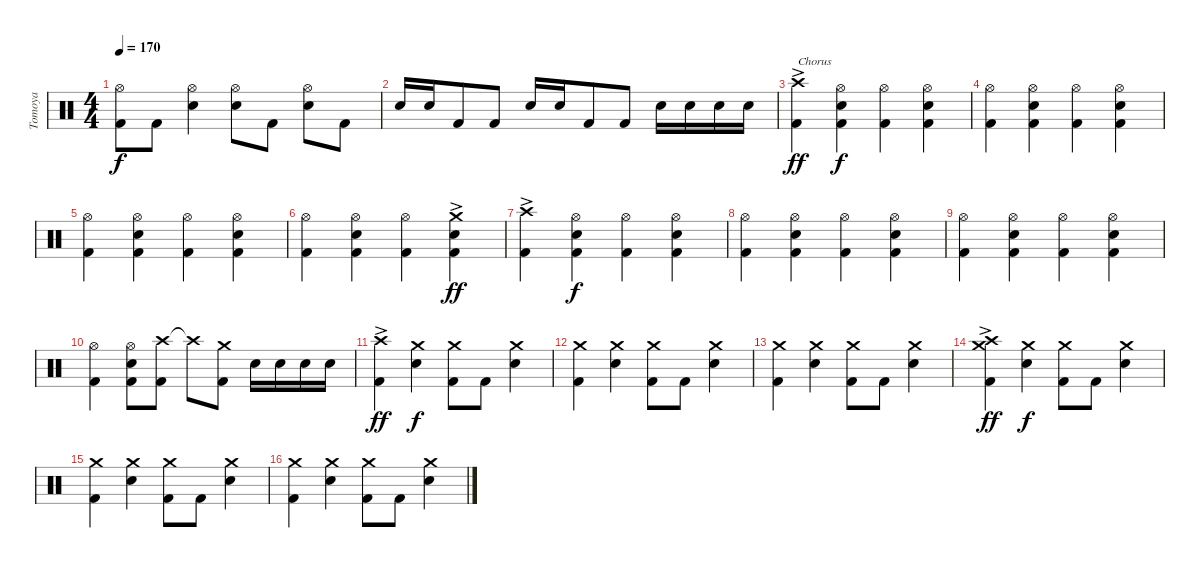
\track ("Tomoya" "Tomoya") {instrument percussion}
\staff {score}
\articulation defaults
\ts (4 4)
\tempo 170
\clef neutral
\ks c
("Hi-Hat (open)" "Kick (hit) 2").8{dy f} "Kick (hit) 2".8 ("Hi-Hat (open)" "Snare (hit) 2").4 ("Hi-Hat (open)" "Snare (hit) 2").8 "Kick (hit) 2".8 ("Hi-Hat (open)" "Snare (hit) 2").8 "Kick (hit) 2".8 |
"Snare (hit) 2".16 "Snare (hit) 2".16{beam merge} "Kick (hit) 2".8{beam merge} "Kick (hit) 2".8{beam split} "Snare (hit) 2".16 "Snare (hit) 2".16{beam merge} "Kick (hit) 2".8 "Kick (hit) 2".8 "Snare (hit) 2".16 "Snare (hit) 2".16 "Snare (hit) 2".16 "Snare (hit) 2".16 |
("Crash high (hit)"{ac} "Kick (hit) 2").4{txt "Chorus" dy ff} ("Hi-Hat (open)" "Snare (hit) 2" "Kick (hit) 2").4{dy f} ("Hi-Hat (open)" "Kick (hit) 2").4 ("Hi-Hat (open)" "Snare (hit) 2" "Kick (hit) 2").4 |
("Hi-Hat (open)" "Kick (hit) 2").4 ("Hi-Hat (open)" "Snare (hit) 2" "Kick (hit) 2").4 ("Hi-Hat (open)" "Kick (hit) 2").4 ("Hi-Hat (open)" "Snare (hit) 2" "Kick (hit) 2").4 |
("Hi-Hat (open)" "Kick (hit) 2").4 ("Hi-Hat (open)" "Snare (hit) 2" "Kick (hit) 2").4 ("Hi-Hat (open)" "Kick (hit) 2").4 ("Hi-Hat (open)" "Snare (hit) 2" "Kick (hit) 2").4 |
("Hi-Hat (open)" "Kick (hit) 2").4 ("Hi-Hat (open)" "Snare (hit) 2" "Kick (hit) 2").4 ("Hi-Hat (open)" "Kick (hit) 2").4 ("Crash medium (hit)"{ac} "Snare (hit) 2" "Kick (hit) 2").4{dy ff} |
("Crash high (hit)"{ac} "Kick (hit) 2").4 ("Hi-Hat (open)" "Snare (hit) 2" "Kick (hit) 2").4{dy f} ("Hi-Hat (open)" "Kick (hit) 2").4 ("Hi-Hat (open)" "Snare (hit) 2" "Kick (hit) 2").4 |
("Hi-Hat (open)" "Kick (hit) 2").4 ("Hi-Hat (open)" "Snare (hit) 2" "Kick (hit) 2").4 ("Hi-Hat (open)" "Kick (hit) 2").4 ("Hi-Hat (open)" "Snare (hit) 2" "Kick (hit) 2").4 |
("Hi-Hat (open)" "Kick (hit) 2").4 ("Hi-Hat (open)" "Snare (hit) 2" "Kick (hit) 2").4 ("Hi-Hat (open)" "Kick (hit) 2").4 ("Hi-Hat (open)" "Snare (hit) 2" "Kick (hit) 2").4 |
("Hi-Hat (open)" "Kick (hit) 2").4 ("Hi-Hat (open)" "Snare (hit) 2" "Kick (hit) 2").8 ("Crash high (hit)" "Kick (hit) 2").8{beam split} "Crash high (hit)"{t}.8 ("Crash medium (hit)" "Kick (hit) 2").8 "Snare (hit) 2".16 "Snare (hit) 2".16 "Snare (hit) 2".16 "Snare (hit) 2".16 |
("Crash high (hit)"{ac} "Kick (hit) 2"{ac}).4{dy ff} ("Crash medium (hit)" "Snare (hit) 2").4{dy f} ("Crash medium (hit)" "Kick (hit) 2").8 "Kick (hit) 2".8 ("Crash medium (hit)" "Snare (hit) 2").4 |
("Crash medium (hit)" "Kick (hit) 2").4 ("Crash medium (hit)" "Snare (hit) 2").4 ("Crash medium (hit)" "Kick (hit) 2").8 "Kick (hit) 2".8 ("Crash medium (hit)" "Snare (hit) 2").4 |
("Crash medium (hit)" "Kick (hit) 2").4 ("Crash medium (hit)" "Snare (hit) 2").4 ("Crash medium (hit)" "Kick (hit) 2").8 "Kick (hit) 2".8 ("Crash medium (hit)" "Snare (hit) 2").4 |
("Crash medium (hit)"{ac} "Crash high (hit)" "Kick (hit) 2"{ac}).4{dy ff} ("Crash medium (hit)" "Snare (hit) 2").4{dy f} ("Crash medium (hit)" "Kick (hit) 2").8 "Kick (hit) 2".8 ("Crash medium (hit)" "Snare (hit) 2").4 |
("Crash medium (hit)" "Kick (hit) 2").4 ("Crash medium (hit)" "Snare (hit) 2").4 ("Crash medium (hit)" "Kick (hit) 2").8 "Kick (hit) 2".8 ("Crash medium (hit)" "Snare (hit) 2").4 |
("Crash medium (hit)" "Kick (hit) 2").4 ("Crash medium (hit)" "Snare (hit) 2").4 ("Crash medium (hit)" "Kick (hit) 2").8 "Kick (hit) 2".8 ("Crash medium (hit)" "Snare (hit) 2").4
